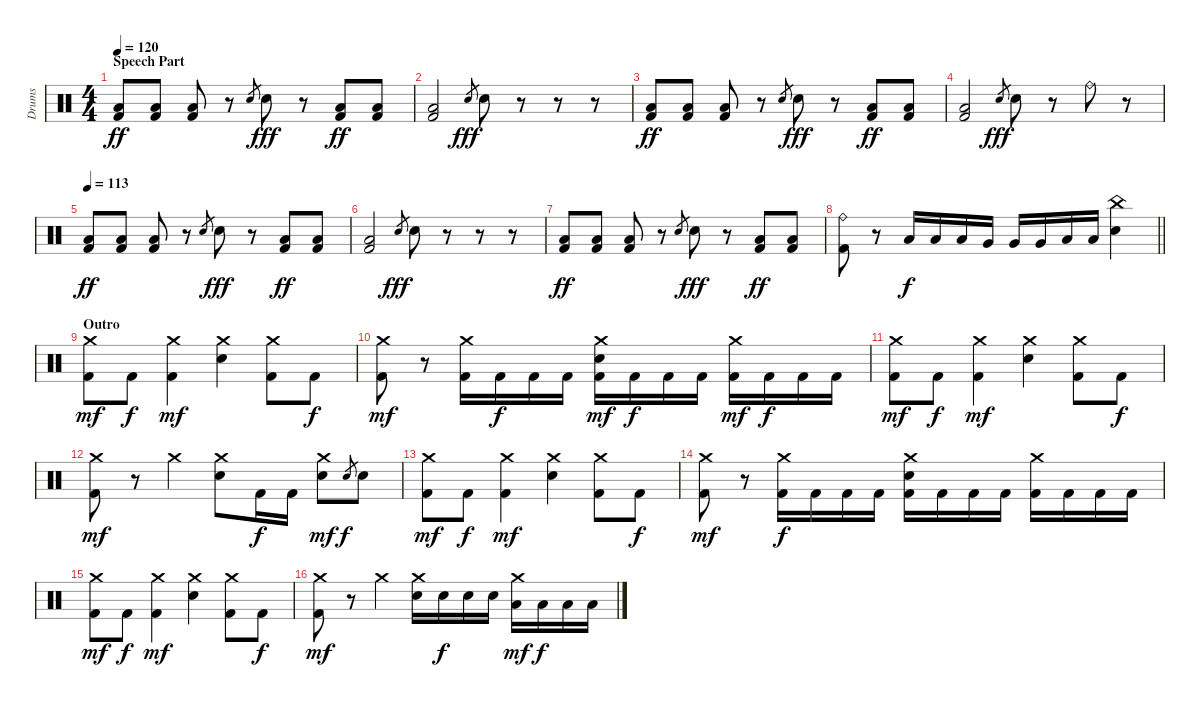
\track ("Drums" "Drums") {instrument percussion}
\staff {score}
\articulation defaults
\ts (4 4)
\section ("" "Speech Part")
\tempo 120
\clef neutral
\ks c
("Low Floor Tom (hit)" "Kick (hit) 2").8{dy ff} ("Low Floor Tom (hit)" "Kick (hit) 2").8 ("Low Floor Tom (hit)" "Kick (hit) 2").8 r.8 "Electric Snare (hit)".8{gr} "Electric Snare (hit)".8{dy fff} r.8 ("Low Floor Tom (hit)" "Kick (hit) 2").8{dy ff} ("Low Floor Tom (hit)" "Kick (hit) 2").8 |
("Low Floor Tom (hit)" "Kick (hit) 2").2 "Electric Snare (hit)".8{gr dy fff} "Electric Snare (hit)".8 r.8 r.8 r.8 |
("Low Floor Tom (hit)" "Kick (hit) 2").8{dy ff} ("Low Floor Tom (hit)" "Kick (hit) 2").8 ("Low Floor Tom (hit)" "Kick (hit) 2").8 r.8 "Electric Snare (hit)".8{gr} "Electric Snare (hit)".8{dy fff} r.8 ("Low Floor Tom (hit)" "Kick (hit) 2").8{dy ff} ("Low Floor Tom (hit)" "Kick (hit) 2").8 |
("Low Floor Tom (hit)" "Kick (hit) 2").2 "Electric Snare (hit)".8{gr dy fff} "Electric Snare (hit)".8 r.8 "Ride (bell)".8 r.8 |
\tempo 113
("Low Floor Tom (hit)" "Kick (hit) 2").8{dy ff} ("Low Floor Tom (hit)" "Kick (hit) 2").8 ("Low Floor Tom (hit)" "Kick (hit) 2").8 r.8 "Electric Snare (hit)".8{gr} "Electric Snare (hit)".8{dy fff} r.8 ("Low Floor Tom (hit)" "Kick (hit) 2").8{dy ff} ("Low Floor Tom (hit)" "Kick (hit) 2").8 |
("Low Floor Tom (hit)" "Kick (hit) 2").2 "Electric Snare (hit)".8{gr dy fff} "Electric Snare (hit)".8 r.8 r.8 r.8 |
("Low Floor Tom (hit)" "Kick (hit) 2").8{dy ff} ("Low Floor Tom (hit)" "Kick (hit) 2").8 ("Low Floor Tom (hit)" "Kick (hit) 2").8 r.8 "Electric Snare (hit)".8{gr} "Electric Snare (hit)".8{dy fff} r.8 ("Low Floor Tom (hit)" "Kick (hit) 2").8{dy ff} ("Low Floor Tom (hit)" "Kick (hit) 2").8 |
\barLineRight lightlight
("Ride (bell)" "Kick (hit) 2").8 r.8 "Low Tom (hit)".16{dy f} "Low Tom (hit)".16 "Low Tom (hit)".16 "Very Low Tom (hit)".16 "Very Low Tom (hit)".16 "Very Low Tom (hit)".16 "Low Floor Tom (hit)".16 "Low Floor Tom (hit)".16 ("China (hit)" "Electric Snare (hit)").4 |
\section ("" "Outro")
("Crash medium (hit)" "Kick (hit) 2").8{dy mf} "Kick (hit) 2".8{dy f} ("Crash medium (hit)" "Kick (hit) 2").4{dy mf} ("Crash medium (hit)" "Electric Snare (hit)").4 ("Crash medium (hit)" "Kick (hit) 2").8 "Kick (hit) 2".8{dy f} |
("Crash medium (hit)" "Kick (hit) 2").8{dy mf} r.8 ("Crash medium (hit)" "Kick (hit) 2").16 "Kick (hit) 2".16{dy f} "Kick (hit) 2".16 "Kick (hit) 2".16 ("Crash medium (hit)" "Electric Snare (hit)" "Kick (hit) 2").16{dy mf} "Kick (hit) 2".16{dy f} "Kick (hit) 2".16 "Kick (hit) 2".16 ("Crash medium (hit)" "Kick (hit) 2").16{dy mf} "Kick (hit) 2".16{dy f} "Kick (hit) 2".16 "Kick (hit) 2".16 |
("Crash medium (hit)" "Kick (hit) 2").8{dy mf} "Kick (hit) 2".8{dy f} ("Crash medium (hit)" "Kick (hit) 2").4{dy mf} ("Crash medium (hit)" "Electric Snare (hit)").4 ("Crash medium (hit)" "Kick (hit) 2").8 "Kick (hit) 2".8{dy f} |
("Crash medium (hit)" "Kick (hit) 2").8{dy mf} r.8 "Crash medium (hit)".4 ("Crash medium (hit)" "Electric Snare (hit)").8 "Kick (hit) 2".16{dy f} "Kick (hit) 2".16 ("Crash medium (hit)" "Electric Snare (hit)").8{dy mf} "Electric Snare (hit)".8{gr dy f} "Electric Snare (hit)".8 |
("Crash medium (hit)" "Kick (hit) 2").8{dy mf} "Kick (hit) 2".8{dy f} ("Crash medium (hit)" "Kick (hit) 2").4{dy mf} ("Crash medium (hit)" "Electric Snare (hit)").4 ("Crash medium (hit)" "Kick (hit) 2").8 "Kick (hit) 2".8{dy f} |
("Crash medium (hit)" "Kick (hit) 2").8{dy mf} r.8 ("Crash medium (hit)" "Kick (hit) 2").16{dy f} "Kick (hit) 2".16 "Kick (hit) 2".16 "Kick (hit) 2".16 ("Crash medium (hit)" "Electric Snare (hit)" "Kick (hit) 2").16 "Kick (hit) 2".16 "Kick (hit) 2".16 "Kick (hit) 2".16 ("Crash medium (hit)" "Kick (hit) 2").16 "Kick (hit) 2".16 "Kick (hit) 2".16 "Kick (hit) 2".16 |
("Crash medium (hit)" "Kick (hit) 2").8{dy mf} "Kick (hit) 2".8{dy f} ("Crash medium (hit)" "Kick (hit) 2").4{dy mf} ("Crash medium (hit)" "Electric Snare (hit)").4 ("Crash medium (hit)" "Kick (hit) 2").8 "Kick (hit) 2".8{dy f} |
("Crash medium (hit)" "Kick (hit) 2").8{dy mf} r.8 "Crash medium (hit)".4 ("Crash medium (hit)" "Electric Snare (hit)").16 "Electric Snare (hit)".16{dy f} "Electric Snare (hit)".16 "Electric Snare (hit)".16 ("Crash medium (hit)" "Low Floor Tom (hit)").16{dy mf} "Low Floor Tom (hit)".16{dy f} "Low Floor Tom (hit)".16 "Low Floor Tom (hit)".16
